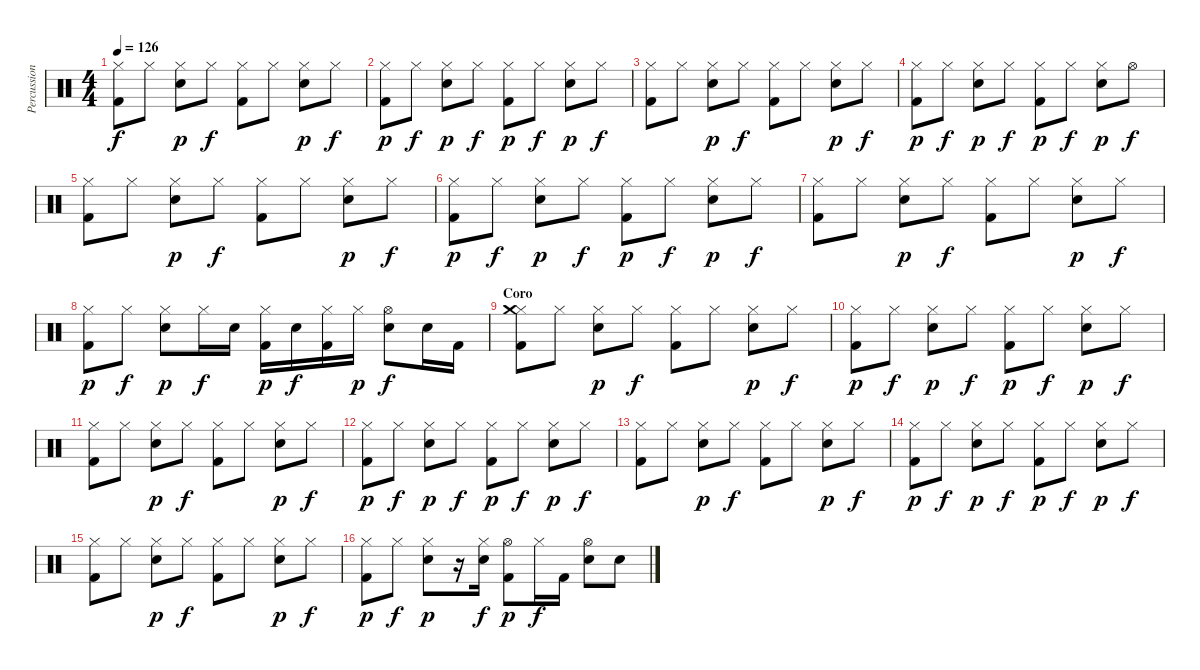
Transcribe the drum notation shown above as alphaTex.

\track ("Percussion" "Percussion") {instrument percussion}
\staff {score}
\articulation defaults
\ts (4 4)
\tempo 126
\clef neutral
\ks c
("Hi-Hat (closed)" "Kick (hit) 2").8{dy f} "Hi-Hat (closed)".8 ("Hi-Hat (closed)" "Snare (hit) 2").8{dy p} "Hi-Hat (closed)".8{dy f} ("Hi-Hat (closed)" "Kick (hit) 2").8 "Hi-Hat (closed)".8 ("Hi-Hat (closed)" "Snare (hit) 2").8{dy p} "Hi-Hat (closed)".8{dy f} |
("Hi-Hat (closed)" "Kick (hit) 2").8{dy p} "Hi-Hat (closed)".8{dy f} ("Hi-Hat (closed)" "Snare (hit) 2").8{dy p} "Hi-Hat (closed)".8{dy f} ("Hi-Hat (closed)" "Kick (hit) 2").8{dy p} "Hi-Hat (closed)".8{dy f} ("Hi-Hat (closed)" "Snare (hit) 2").8{dy p} "Hi-Hat (closed)".8{dy f} |
("Hi-Hat (closed)" "Kick (hit) 2").8 "Hi-Hat (closed)".8 ("Hi-Hat (closed)" "Snare (hit) 2").8{dy p} "Hi-Hat (closed)".8{dy f} ("Hi-Hat (closed)" "Kick (hit) 2").8 "Hi-Hat (closed)".8 ("Hi-Hat (closed)" "Snare (hit) 2").8{dy p} "Hi-Hat (closed)".8{dy f} |
("Hi-Hat (closed)" "Kick (hit) 2").8{dy p} "Hi-Hat (closed)".8{dy f} ("Hi-Hat (closed)" "Snare (hit) 2").8{dy p} "Hi-Hat (closed)".8{dy f} ("Hi-Hat (closed)" "Kick (hit) 2").8{dy p} "Hi-Hat (closed)".8{dy f} ("Hi-Hat (closed)" "Snare (hit) 2").8{dy p} "Hi-Hat (open)".8{dy f} |
("Hi-Hat (closed)" "Kick (hit) 2").8 "Hi-Hat (closed)".8 ("Hi-Hat (closed)" "Snare (hit) 2").8{dy p} "Hi-Hat (closed)".8{dy f} ("Hi-Hat (closed)" "Kick (hit) 2").8 "Hi-Hat (closed)".8 ("Hi-Hat (closed)" "Snare (hit) 2").8{dy p} "Hi-Hat (closed)".8{dy f} |
("Hi-Hat (closed)" "Kick (hit) 2").8{dy p} "Hi-Hat (closed)".8{dy f} ("Hi-Hat (closed)" "Snare (hit) 2").8{dy p} "Hi-Hat (closed)".8{dy f} ("Hi-Hat (closed)" "Kick (hit) 2").8{dy p} "Hi-Hat (closed)".8{dy f} ("Hi-Hat (closed)" "Snare (hit) 2").8{dy p} "Hi-Hat (closed)".8{dy f} |
("Hi-Hat (closed)" "Kick (hit) 2").8 "Hi-Hat (closed)".8 ("Hi-Hat (closed)" "Snare (hit) 2").8{dy p} "Hi-Hat (closed)".8{dy f} ("Hi-Hat (closed)" "Kick (hit) 2").8 "Hi-Hat (closed)".8 ("Hi-Hat (closed)" "Snare (hit) 2").8{dy p} "Hi-Hat (closed)".8{dy f} |
("Hi-Hat (closed)" "Kick (hit) 2").8{dy p} "Hi-Hat (closed)".8{dy f} ("Hi-Hat (closed)" "Snare (hit) 2").8{dy p} "Hi-Hat (closed)".16{dy f} "Snare (hit) 2".16 ("Hi-Hat (closed)" "Kick (hit) 2").16{dy p} "Snare (hit) 2".16{dy f} ("Hi-Hat (closed)" "Kick (hit) 2").16 "Hi-Hat (closed)".16{dy p} ("Hi-Hat (open)" "Snare (hit) 2").8{dy f} "Snare (hit) 2".16 "Kick (hit) 2".16 |
\section ("" "Coro")
("Hi-Hat (closed)" "Crash medium (hit)" "Kick (hit) 2").8 "Hi-Hat (closed)".8 ("Hi-Hat (closed)" "Snare (hit) 2").8{dy p} "Hi-Hat (closed)".8{dy f} ("Hi-Hat (closed)" "Kick (hit) 2").8 "Hi-Hat (closed)".8 ("Hi-Hat (closed)" "Snare (hit) 2").8{dy p} "Hi-Hat (closed)".8{dy f} |
("Hi-Hat (closed)" "Kick (hit) 2").8{dy p} "Hi-Hat (closed)".8{dy f} ("Hi-Hat (closed)" "Snare (hit) 2").8{dy p} "Hi-Hat (closed)".8{dy f} ("Hi-Hat (closed)" "Kick (hit) 2").8{dy p} "Hi-Hat (closed)".8{dy f} ("Hi-Hat (closed)" "Snare (hit) 2").8{dy p} "Hi-Hat (closed)".8{dy f} |
("Hi-Hat (closed)" "Kick (hit) 2").8 "Hi-Hat (closed)".8 ("Hi-Hat (closed)" "Snare (hit) 2").8{dy p} "Hi-Hat (closed)".8{dy f} ("Hi-Hat (closed)" "Kick (hit) 2").8 "Hi-Hat (closed)".8 ("Hi-Hat (closed)" "Snare (hit) 2").8{dy p} "Hi-Hat (closed)".8{dy f} |
("Hi-Hat (closed)" "Kick (hit) 2").8{dy p} "Hi-Hat (closed)".8{dy f} ("Hi-Hat (closed)" "Snare (hit) 2").8{dy p} "Hi-Hat (closed)".8{dy f} ("Hi-Hat (closed)" "Kick (hit) 2").8{dy p} "Hi-Hat (closed)".8{dy f} ("Hi-Hat (closed)" "Snare (hit) 2").8{dy p} "Hi-Hat (closed)".8{dy f} |
("Hi-Hat (closed)" "Kick (hit) 2").8 "Hi-Hat (closed)".8 ("Hi-Hat (closed)" "Snare (hit) 2").8{dy p} "Hi-Hat (closed)".8{dy f} ("Hi-Hat (closed)" "Kick (hit) 2").8 "Hi-Hat (closed)".8 ("Hi-Hat (closed)" "Snare (hit) 2").8{dy p} "Hi-Hat (closed)".8{dy f} |
("Hi-Hat (closed)" "Kick (hit) 2").8{dy p} "Hi-Hat (closed)".8{dy f} ("Hi-Hat (closed)" "Snare (hit) 2").8{dy p} "Hi-Hat (closed)".8{dy f} ("Hi-Hat (closed)" "Kick (hit) 2").8{dy p} "Hi-Hat (closed)".8{dy f} ("Hi-Hat (closed)" "Snare (hit) 2").8{dy p} "Hi-Hat (closed)".8{dy f} |
("Hi-Hat (closed)" "Kick (hit) 2").8 "Hi-Hat (closed)".8 ("Hi-Hat (closed)" "Snare (hit) 2").8{dy p} "Hi-Hat (closed)".8{dy f} ("Hi-Hat (closed)" "Kick (hit) 2").8 "Hi-Hat (closed)".8 ("Hi-Hat (closed)" "Snare (hit) 2").8{dy p} "Hi-Hat (closed)".8{dy f} |
("Hi-Hat (closed)" "Kick (hit) 2").8{dy p} "Hi-Hat (closed)".8{dy f} ("Hi-Hat (closed)" "Snare (hit) 2").8{dy p} r.16 ("Hi-Hat (closed)" "Snare (hit) 2").16{dy f} ("Hi-Hat (open)" "Kick (hit) 2").8{dy p} "Hi-Hat (closed)".16{dy f} "Kick (hit) 2".16 ("Hi-Hat (open)" "Snare (hit) 2").8 "Snare (hit) 2".8
